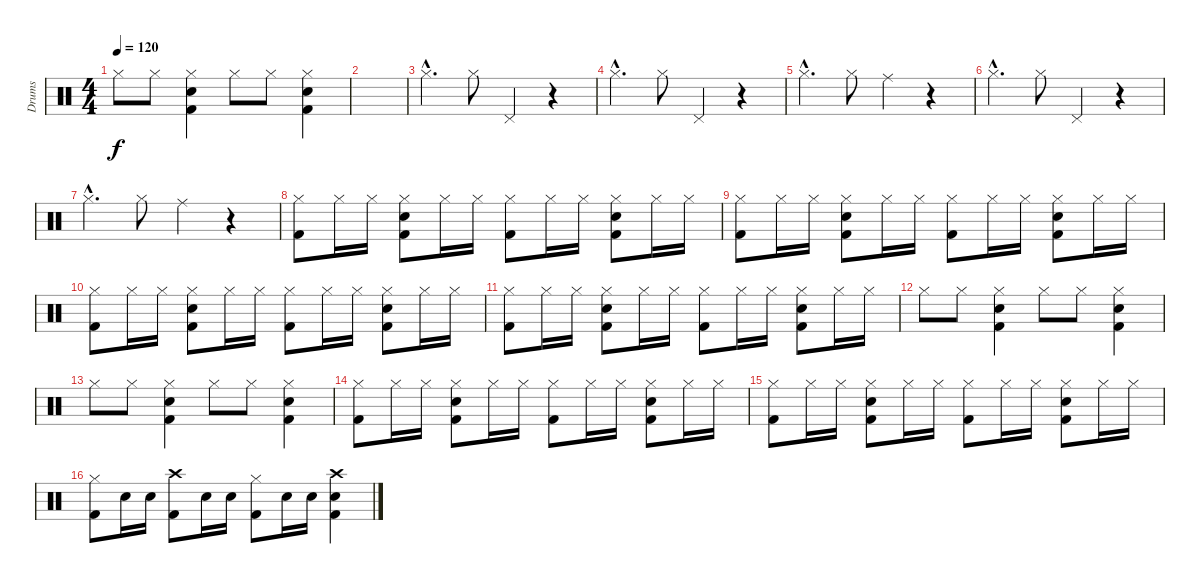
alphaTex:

\track ("Drums" "Drums") {instrument percussion}
\staff {score}
\articulation defaults
\ts (4 4)
\tempo 120
\clef neutral
\ks c "Hi-Hat (closed)".8{dy f} "Hi-Hat (closed)".8
("Hi-Hat (closed)" "Snare (hit) 2" "Kick (hit) 2").4 "Hi-Hat (closed)".8 "Hi-Hat (closed)".8 ("Hi-Hat (closed)" "Snare (hit) 2" "Kick (hit) 2").4 |
|
"Hi-Hat (closed)"{hac}.4{d} "Hi-Hat (closed)".8 "Pedal Hi-Hat (hit)".4 r.4 |
"Hi-Hat (closed)"{hac}.4{d} "Hi-Hat (closed)".8 "Pedal Hi-Hat (hit)".4 r.4 |
"Hi-Hat (closed)"{hac}.4{d} "Hi-Hat (closed)".8 "Ride (middle)".4 r.4 |
"Hi-Hat (closed)"{hac}.4{d} "Hi-Hat (closed)".8 "Pedal Hi-Hat (hit)".4 r.4 |
"Hi-Hat (closed)"{hac}.4{d} "Hi-Hat (closed)".8 "Ride (middle)".4 r.4 |
("Hi-Hat (closed)" "Kick (hit) 2").8 "Hi-Hat (closed)".16 "Hi-Hat (closed)".16 ("Hi-Hat (closed)" "Snare (hit) 2" "Kick (hit) 2").8 "Hi-Hat (closed)".16 "Hi-Hat (closed)".16 ("Hi-Hat (closed)" "Kick (hit) 2").8 "Hi-Hat (closed)".16 "Hi-Hat (closed)".16 ("Hi-Hat (closed)" "Snare (hit) 2" "Kick (hit) 2").8 "Hi-Hat (closed)".16 "Hi-Hat (closed)".16 |
("Hi-Hat (closed)" "Kick (hit) 2").8 "Hi-Hat (closed)".16 "Hi-Hat (closed)".16 ("Hi-Hat (closed)" "Snare (hit) 2" "Kick (hit) 2").8 "Hi-Hat (closed)".16 "Hi-Hat (closed)".16 ("Hi-Hat (closed)" "Kick (hit) 2").8 "Hi-Hat (closed)".16 "Hi-Hat (closed)".16 ("Hi-Hat (closed)" "Snare (hit) 2" "Kick (hit) 2").8 "Hi-Hat (closed)".16 "Hi-Hat (closed)".16 |
("Hi-Hat (closed)" "Kick (hit) 2").8 "Hi-Hat (closed)".16 "Hi-Hat (closed)".16 ("Hi-Hat (closed)" "Snare (hit) 2" "Kick (hit) 2").8 "Hi-Hat (closed)".16 "Hi-Hat (closed)".16 ("Hi-Hat (closed)" "Kick (hit) 2").8 "Hi-Hat (closed)".16 "Hi-Hat (closed)".16 ("Hi-Hat (closed)" "Snare (hit) 2" "Kick (hit) 2").8 "Hi-Hat (closed)".16 "Hi-Hat (closed)".16 |
("Hi-Hat (closed)" "Kick (hit) 2").8 "Hi-Hat (closed)".16 "Hi-Hat (closed)".16 ("Hi-Hat (closed)" "Snare (hit) 2" "Kick (hit) 2").8 "Hi-Hat (closed)".16 "Hi-Hat (closed)".16 ("Hi-Hat (closed)" "Kick (hit) 2").8 "Hi-Hat (closed)".16 "Hi-Hat (closed)".16 ("Hi-Hat (closed)" "Snare (hit) 2" "Kick (hit) 2").8 "Hi-Hat (closed)".16 "Hi-Hat (closed)".16 |
"Hi-Hat (closed)".8 "Hi-Hat (closed)".8 ("Hi-Hat (closed)" "Snare (hit) 2" "Kick (hit) 2").4 "Hi-Hat (closed)".8 "Hi-Hat (closed)".8 ("Hi-Hat (closed)" "Snare (hit) 2" "Kick (hit) 2").4 |
"Hi-Hat (closed)".8 "Hi-Hat (closed)".8 ("Hi-Hat (closed)" "Snare (hit) 2" "Kick (hit) 2").4 "Hi-Hat (closed)".8 "Hi-Hat (closed)".8 ("Hi-Hat (closed)" "Snare (hit) 2" "Kick (hit) 2").4 |
("Hi-Hat (closed)" "Kick (hit) 2").8 "Hi-Hat (closed)".16 "Hi-Hat (closed)".16 ("Hi-Hat (closed)" "Snare (hit) 2" "Kick (hit) 2").8 "Hi-Hat (closed)".16 "Hi-Hat (closed)".16 ("Hi-Hat (closed)" "Kick (hit) 2").8 "Hi-Hat (closed)".16 "Hi-Hat (closed)".16 ("Hi-Hat (closed)" "Snare (hit) 2" "Kick (hit) 2").8 "Hi-Hat (closed)".16 "Hi-Hat (closed)".16 |
("Hi-Hat (closed)" "Kick (hit) 2").8 "Hi-Hat (closed)".16 "Hi-Hat (closed)".16 ("Hi-Hat (closed)" "Snare (hit) 2" "Kick (hit) 2").8 "Hi-Hat (closed)".16 "Hi-Hat (closed)".16 ("Hi-Hat (closed)" "Kick (hit) 2").8 "Hi-Hat (closed)".16 "Hi-Hat (closed)".16 ("Hi-Hat (closed)" "Snare (hit) 2" "Kick (hit) 2").8 "Hi-Hat (closed)".16 "Hi-Hat (closed)".16 |
("Hi-Hat (closed)" "Kick (hit) 2").8 "Snare (hit) 2".16 "Snare (hit) 2".16 ("Crash high (hit)" "Kick (hit) 2").8 "Snare (hit) 2".16 "Snare (hit) 2".16 ("Hi-Hat (closed)" "Kick (hit) 2").8 "Snare (hit) 2".16 "Snare (hit) 2".16 ("Crash high (hit)" "Snare (hit) 2" "Kick (hit) 2").4
